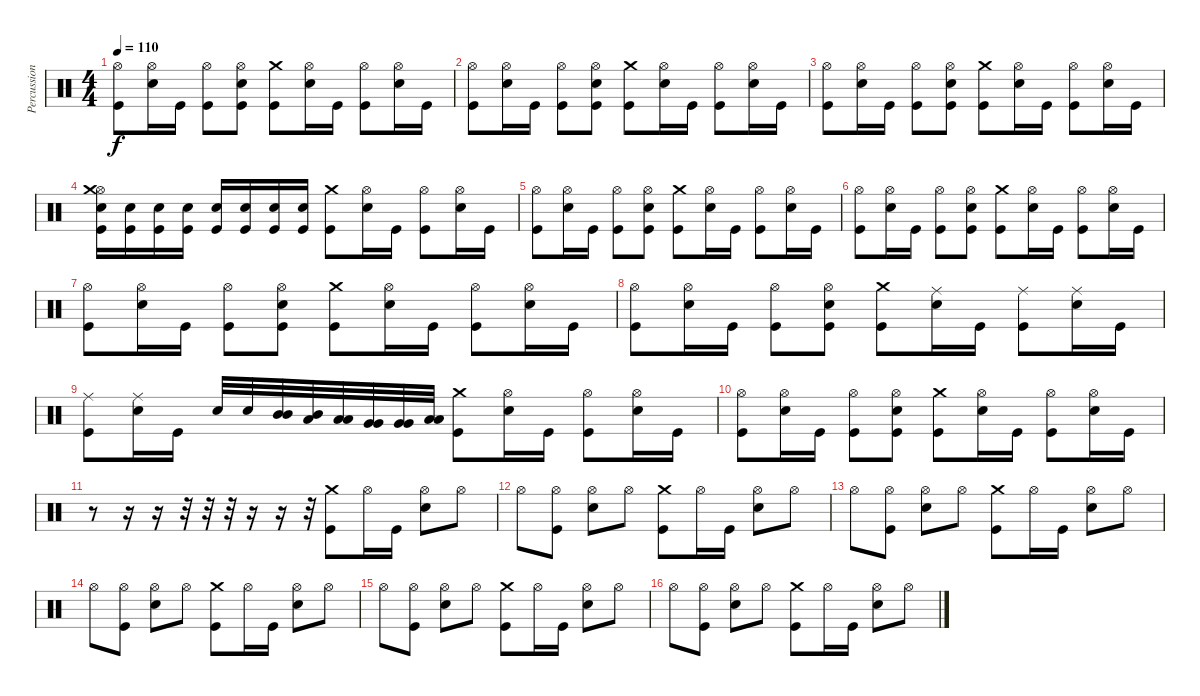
\track ("Percussion" "Percussion") {instrument percussion}
\staff {score}
\articulation defaults
\ts (4 4)
\tempo 110
\clef neutral
\ks c
("Hi-Hat (open)" "Kick (hit)").8{dy f} ("Hi-Hat (open)" "Electric Snare (hit)").16 "Kick (hit)".16 ("Hi-Hat (open)" "Kick (hit)").8 ("Hi-Hat (open)" "Electric Snare (hit)" "Kick (hit)").8 ("Crash medium (hit)" "Kick (hit)").8 ("Hi-Hat (open)" "Electric Snare (hit)").16 "Kick (hit)".16 ("Hi-Hat (open)" "Kick (hit)").8 ("Hi-Hat (open)" "Electric Snare (hit)").16 "Kick (hit)".16 |
("Hi-Hat (open)" "Kick (hit)").8 ("Hi-Hat (open)" "Electric Snare (hit)").16 "Kick (hit)".16 ("Hi-Hat (open)" "Kick (hit)").8 ("Hi-Hat (open)" "Electric Snare (hit)" "Kick (hit)").8 ("Crash medium (hit)" "Kick (hit)").8 ("Hi-Hat (open)" "Electric Snare (hit)").16 "Kick (hit)".16 ("Hi-Hat (open)" "Kick (hit)").8 ("Hi-Hat (open)" "Electric Snare (hit)").16 "Kick (hit)".16 |
("Hi-Hat (open)" "Kick (hit)").8 ("Hi-Hat (open)" "Electric Snare (hit)").16 "Kick (hit)".16 ("Hi-Hat (open)" "Kick (hit)").8 ("Hi-Hat (open)" "Electric Snare (hit)" "Kick (hit)").8 ("Crash medium (hit)" "Kick (hit)").8 ("Hi-Hat (open)" "Electric Snare (hit)").16 "Kick (hit)".16 ("Hi-Hat (open)" "Kick (hit)").8 ("Hi-Hat (open)" "Electric Snare (hit)").16 "Kick (hit)".16 |
("Hi-Hat (open)" "Crash medium (hit)" "Electric Snare (hit)" "Kick (hit)").16 ("Electric Snare (hit)" "Kick (hit)").16 ("Electric Snare (hit)" "Kick (hit)").16 ("Electric Snare (hit)" "Kick (hit)").16 ("Electric Snare (hit)" "Kick (hit)").16 ("Electric Snare (hit)" "Kick (hit)").16 ("Electric Snare (hit)" "Kick (hit)").16 ("Electric Snare (hit)" "Kick (hit)").16 ("Crash medium (hit)" "Kick (hit)").8 ("Hi-Hat (open)" "Electric Snare (hit)").16 "Kick (hit)".16 ("Hi-Hat (open)" "Kick (hit)").8 ("Hi-Hat (open)" "Electric Snare (hit)").16 "Kick (hit)".16 |
("Hi-Hat (open)" "Kick (hit)").8 ("Hi-Hat (open)" "Electric Snare (hit)").16 "Kick (hit)".16 ("Hi-Hat (open)" "Kick (hit)").8 ("Hi-Hat (open)" "Electric Snare (hit)" "Kick (hit)").8 ("Crash medium (hit)" "Kick (hit)").8 ("Hi-Hat (open)" "Electric Snare (hit)").16 "Kick (hit)".16 ("Hi-Hat (open)" "Kick (hit)").8 ("Hi-Hat (open)" "Electric Snare (hit)").16 "Kick (hit)".16 |
("Hi-Hat (open)" "Kick (hit)").8 ("Hi-Hat (open)" "Electric Snare (hit)").16 "Kick (hit)".16 ("Hi-Hat (open)" "Kick (hit)").8 ("Hi-Hat (open)" "Electric Snare (hit)" "Kick (hit)").8 ("Crash medium (hit)" "Kick (hit)").8 ("Hi-Hat (open)" "Electric Snare (hit)").16 "Kick (hit)".16 ("Hi-Hat (open)" "Kick (hit)").8 ("Hi-Hat (open)" "Electric Snare (hit)").16 "Kick (hit)".16 |
("Hi-Hat (open)" "Kick (hit)").8 ("Hi-Hat (open)" "Electric Snare (hit)").16 "Kick (hit)".16 ("Hi-Hat (open)" "Kick (hit)").8 ("Hi-Hat (open)" "Electric Snare (hit)" "Kick (hit)").8 ("Crash medium (hit)" "Kick (hit)").8 ("Hi-Hat (open)" "Electric Snare (hit)").16 "Kick (hit)".16 ("Hi-Hat (open)" "Kick (hit)").8 ("Hi-Hat (open)" "Electric Snare (hit)").16 "Kick (hit)".16 |
("Hi-Hat (open)" "Kick (hit)").8 ("Hi-Hat (open)" "Electric Snare (hit)").16 "Kick (hit)".16 ("Hi-Hat (open)" "Kick (hit)").8 ("Hi-Hat (open)" "Electric Snare (hit)" "Kick (hit)").8 ("Crash medium (hit)" "Kick (hit)").8 ("Ride (middle)" "Electric Snare (hit)").16 "Kick (hit)".16 ("Ride (middle)" "Kick (hit)").8 ("Ride (middle)" "Electric Snare (hit)").16 "Kick (hit)".16 |
("Ride (middle)" "Kick (hit)").8 ("Ride (middle)" "Electric Snare (hit)").16 "Kick (hit)".16 "Electric Snare (hit)".32 "Electric Snare (hit)".32 ("Mid Tom (hit)" "Mid Tom (hit)").32 ("Mid Tom (hit)" "Low Tom (hit)").32 ("Low Tom (hit)" "Low Tom (hit)").32 ("Very Low Tom (hit)" "Very Low Tom (hit)").32 ("Very Low Tom (hit)" "Very Low Tom (hit)").32 ("Low Floor Tom (hit)" "Low Floor Tom (hit)").32 ("Crash medium (hit)" "Kick (hit)").8 ("Hi-Hat (open)" "Electric Snare (hit)").16 "Kick (hit)".16 ("Hi-Hat (open)" "Kick (hit)").8 ("Hi-Hat (open)" "Electric Snare (hit)").16 "Kick (hit)".16 |
("Hi-Hat (open)" "Kick (hit)").8 ("Hi-Hat (open)" "Electric Snare (hit)").16 "Kick (hit)".16 ("Hi-Hat (open)" "Kick (hit)").8 ("Hi-Hat (open)" "Electric Snare (hit)" "Kick (hit)").8 ("Crash medium (hit)" "Kick (hit)").8 ("Hi-Hat (open)" "Electric Snare (hit)").16 "Kick (hit)".16 ("Hi-Hat (open)" "Kick (hit)").8 ("Hi-Hat (open)" "Electric Snare (hit)").16 "Kick (hit)".16 |
r.8 r.16 r.16 r.32 r.32 r.32 r.16 r.16 r.32 ("Crash medium (hit)" "Kick (hit)").8 "Hi-Hat (open)".16 "Kick (hit)".16 ("Hi-Hat (open)" "Electric Snare (hit)").8 "Hi-Hat (open)".8 |
"Hi-Hat (open)".8 ("Kick (hit)" "Hi-Hat (open)").8 ("Electric Snare (hit)" "Hi-Hat (open)").8 "Hi-Hat (open)".8 ("Crash medium (hit)" "Kick (hit)").8 "Hi-Hat (open)".16 "Kick (hit)".16 ("Hi-Hat (open)" "Electric Snare (hit)").8 "Hi-Hat (open)".8 |
"Hi-Hat (open)".8 ("Kick (hit)" "Hi-Hat (open)").8 ("Electric Snare (hit)" "Hi-Hat (open)").8 "Hi-Hat (open)".8 ("Crash medium (hit)" "Kick (hit)").8 "Hi-Hat (open)".16 "Kick (hit)".16 ("Hi-Hat (open)" "Electric Snare (hit)").8 "Hi-Hat (open)".8 |
"Hi-Hat (open)".8 ("Kick (hit)" "Hi-Hat (open)").8 ("Electric Snare (hit)" "Hi-Hat (open)").8 "Hi-Hat (open)".8 ("Crash medium (hit)" "Kick (hit)").8 "Hi-Hat (open)".16 "Kick (hit)".16 ("Hi-Hat (open)" "Electric Snare (hit)").8 "Hi-Hat (open)".8 |
"Hi-Hat (open)".8 ("Kick (hit)" "Hi-Hat (open)").8 ("Electric Snare (hit)" "Hi-Hat (open)").8 "Hi-Hat (open)".8 ("Crash medium (hit)" "Kick (hit)").8 "Hi-Hat (open)".16 "Kick (hit)".16 ("Hi-Hat (open)" "Electric Snare (hit)").8 "Hi-Hat (open)".8 |
"Hi-Hat (open)".8 ("Kick (hit)" "Hi-Hat (open)").8 ("Electric Snare (hit)" "Hi-Hat (open)").8 "Hi-Hat (open)".8 ("Crash medium (hit)" "Kick (hit)").8 "Hi-Hat (open)".16 "Kick (hit)".16 ("Hi-Hat (open)" "Electric Snare (hit)").8 "Hi-Hat (open)".8
